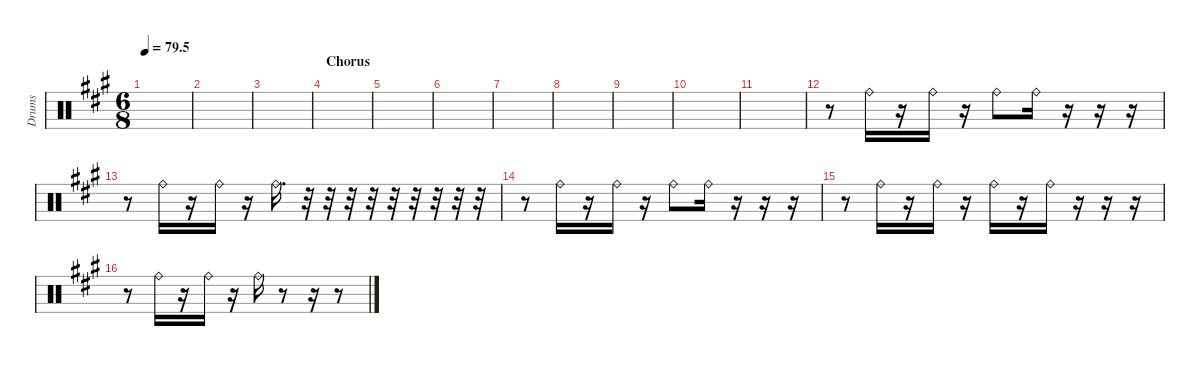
\defaultSystemsLayout 4
\hideDynamics
\bracketExtendMode nobrackets
\otherSystemsTrackNameOrientation horizontal
\track ("Raid" "Drums") {instrument percussion}
\staff {score}
\articulation defaults
\ts (6 8)
\tempo
79.5
\accidentals auto
\clef neutral
\ottava regular
\simile none
\scale
0.333333
\ks a
|
\scale
0.333333 |
\scale
0.333333 |
\section ("" "Chorus")
\scale
0.333333 |
\scale
0.333333 |
\scale
0.333333 |
\scale
0.333333 |
\scale
0.333333 |
\scale
0.333333 |
\scale
0.333333 |
\scale
0.333333 |
\scale
0.333333 r.8 "Ride (bell)"{acc forcenatural}.16 r.16 "Ride (bell)"{acc forcenatural}.16 r.16 "Ride (bell)"{acc forcenatural}.8 "Ride (bell)"{acc forcenatural}.16 r.16 r.16 r.16 |
\scale
0.333333 r.8 "Ride (bell)"{acc forcenatural}.16 r.16 "Ride (bell)"{acc forcenatural}.16 r.16 "Ride (bell)"{acc forcenatural}.16{d} r.32 r.32 r.32 r.32 r.32 r.32 r.32 r.32 r.32 |
\scale
0.333333 r.8 "Ride (bell)"{acc forcenatural}.16 r.16 "Ride (bell)"{acc forcenatural}.16 r.16 "Ride (bell)"{acc forcenatural}.8 "Ride (bell)"{acc forcenatural}.16 r.16 r.16 r.16 |
\scale
0.333333 r.8 "Ride (bell)"{acc forcenatural}.16 r.16 "Ride (bell)"{acc forcenatural}.16 r.16 "Ride (bell)"{acc forcenatural}.16 r.16 "Ride (bell)"{acc forcenatural}.16 r.16 r.16 r.16 |
\scale
0.333333 r.8 "Ride (bell)"{acc forcenatural}.16 r.16 "Ride (bell)"{acc forcenatural}.16 r.16 "Ride (bell)"{acc forcenatural}.16 r.8 r.16 r.8
